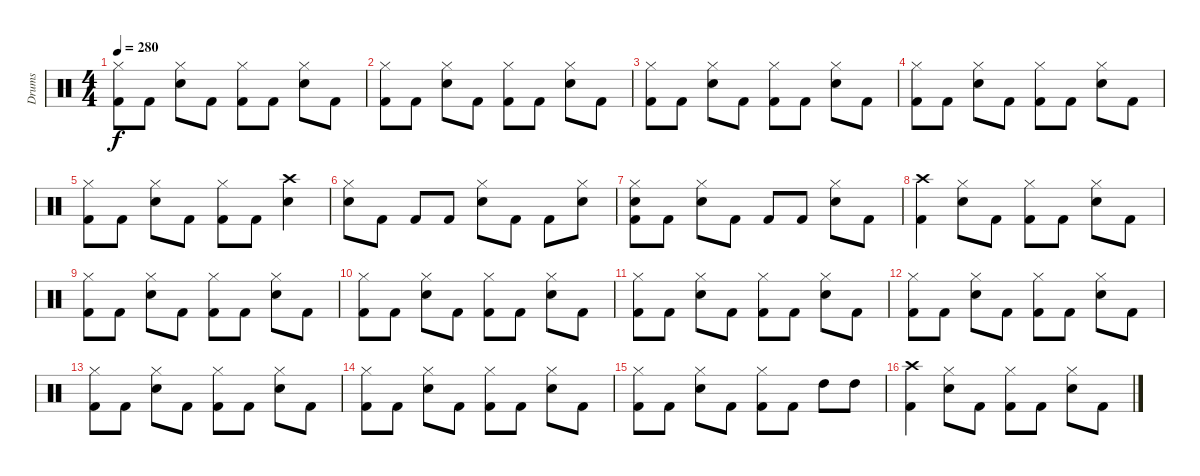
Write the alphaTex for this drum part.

\track ("Drums" "Drums") {instrument percussion}
\staff {score}
\articulation defaults
\ts (4 4)
\tempo 280
\clef neutral
\ks c
("Hi-Hat (closed)" "Kick (hit) 2").8{dy f} "Kick (hit) 2".8 ("Hi-Hat (closed)" "Snare (hit) 2").8 "Kick (hit) 2".8 ("Hi-Hat (closed)" "Kick (hit) 2").8 "Kick (hit) 2".8 ("Hi-Hat (closed)" "Snare (hit) 2").8 "Kick (hit) 2".8 |
("Hi-Hat (closed)" "Kick (hit) 2").8 "Kick (hit) 2".8 ("Hi-Hat (closed)" "Snare (hit) 2").8 "Kick (hit) 2".8 ("Hi-Hat (closed)" "Kick (hit) 2").8 "Kick (hit) 2".8 ("Hi-Hat (closed)" "Snare (hit) 2").8 "Kick (hit) 2".8 |
("Hi-Hat (closed)" "Kick (hit) 2").8 "Kick (hit) 2".8 ("Hi-Hat (closed)" "Snare (hit) 2").8 "Kick (hit) 2".8 ("Hi-Hat (closed)" "Kick (hit) 2").8 "Kick (hit) 2".8 ("Hi-Hat (closed)" "Snare (hit) 2").8 "Kick (hit) 2".8 |
("Hi-Hat (closed)" "Kick (hit) 2").8 "Kick (hit) 2".8 ("Hi-Hat (closed)" "Snare (hit) 2").8 "Kick (hit) 2".8 ("Hi-Hat (closed)" "Kick (hit) 2").8 "Kick (hit) 2".8 ("Hi-Hat (closed)" "Snare (hit) 2").8 "Kick (hit) 2".8 |
("Hi-Hat (closed)" "Kick (hit) 2").8 "Kick (hit) 2".8 ("Hi-Hat (closed)" "Snare (hit) 2").8 "Kick (hit) 2".8 ("Hi-Hat (closed)" "Kick (hit) 2").8 "Kick (hit) 2".8 ("Snare (hit) 2" "Crash high (hit)").4 |
("Snare (hit) 2" "Hi-Hat (closed)").8 "Kick (hit) 2".8 "Kick (hit) 2".8 "Kick (hit) 2".8 ("Snare (hit) 2" "Hi-Hat (closed)").8 "Kick (hit) 2".8 "Kick (hit) 2".8 ("Snare (hit) 2" "Hi-Hat (closed)").8 |
("Kick (hit) 2" "Snare (hit) 2" "Hi-Hat (closed)").8 "Kick (hit) 2".8 ("Snare (hit) 2" "Hi-Hat (closed)").8 "Kick (hit) 2".8 "Kick (hit) 2".8 "Kick (hit) 2".8 ("Snare (hit) 2" "Hi-Hat (closed)").8 "Kick (hit) 2".8 |
("Kick (hit) 2" "Crash high (hit)").4 ("Hi-Hat (closed)" "Snare (hit) 2").8 "Kick (hit) 2".8 ("Hi-Hat (closed)" "Kick (hit) 2").8 "Kick (hit) 2".8 ("Hi-Hat (closed)" "Snare (hit) 2").8 "Kick (hit) 2".8 |
("Hi-Hat (closed)" "Kick (hit) 2").8 "Kick (hit) 2".8 ("Hi-Hat (closed)" "Snare (hit) 2").8 "Kick (hit) 2".8 ("Hi-Hat (closed)" "Kick (hit) 2").8 "Kick (hit) 2".8 ("Hi-Hat (closed)" "Snare (hit) 2").8 "Kick (hit) 2".8 |
("Hi-Hat (closed)" "Kick (hit) 2").8 "Kick (hit) 2".8 ("Hi-Hat (closed)" "Snare (hit) 2").8 "Kick (hit) 2".8 ("Hi-Hat (closed)" "Kick (hit) 2").8 "Kick (hit) 2".8 ("Hi-Hat (closed)" "Snare (hit) 2").8 "Kick (hit) 2".8 |
("Hi-Hat (closed)" "Kick (hit) 2").8 "Kick (hit) 2".8 ("Hi-Hat (closed)" "Snare (hit) 2").8 "Kick (hit) 2".8 ("Hi-Hat (closed)" "Kick (hit) 2").8 "Kick (hit) 2".8 ("Hi-Hat (closed)" "Snare (hit) 2").8 "Kick (hit) 2".8 |
("Hi-Hat (closed)" "Kick (hit) 2").8 "Kick (hit) 2".8 ("Hi-Hat (closed)" "Snare (hit) 2").8 "Kick (hit) 2".8 ("Hi-Hat (closed)" "Kick (hit) 2").8 "Kick (hit) 2".8 ("Hi-Hat (closed)" "Snare (hit) 2").8 "Kick (hit) 2".8 |
("Hi-Hat (closed)" "Kick (hit) 2").8 "Kick (hit) 2".8 ("Hi-Hat (closed)" "Snare (hit) 2").8 "Kick (hit) 2".8 ("Hi-Hat (closed)" "Kick (hit) 2").8 "Kick (hit) 2".8 ("Hi-Hat (closed)" "Snare (hit) 2").8 "Kick (hit) 2".8 |
("Hi-Hat (closed)" "Kick (hit) 2").8 "Kick (hit) 2".8 ("Hi-Hat (closed)" "Snare (hit) 2").8 "Kick (hit) 2".8 ("Hi-Hat (closed)" "Kick (hit) 2").8 "Kick (hit) 2".8 ("Hi-Hat (closed)" "Snare (hit) 2").8 "Kick (hit) 2".8 |
("Hi-Hat (closed)" "Kick (hit) 2").8 "Kick (hit) 2".8 ("Hi-Hat (closed)" "Snare (hit) 2").8 "Kick (hit) 2".8 ("Hi-Hat (closed)" "Kick (hit) 2").8 "Kick (hit) 2".8 "High Tom (hit)".8 "High Tom (hit)".8 |
("Kick (hit) 2" "Crash high (hit)").4 ("Hi-Hat (closed)" "Snare (hit) 2").8 "Kick (hit) 2".8 ("Hi-Hat (closed)" "Kick (hit) 2").8 "Kick (hit) 2".8 ("Hi-Hat (closed)" "Snare (hit) 2").8 "Kick (hit) 2".8
